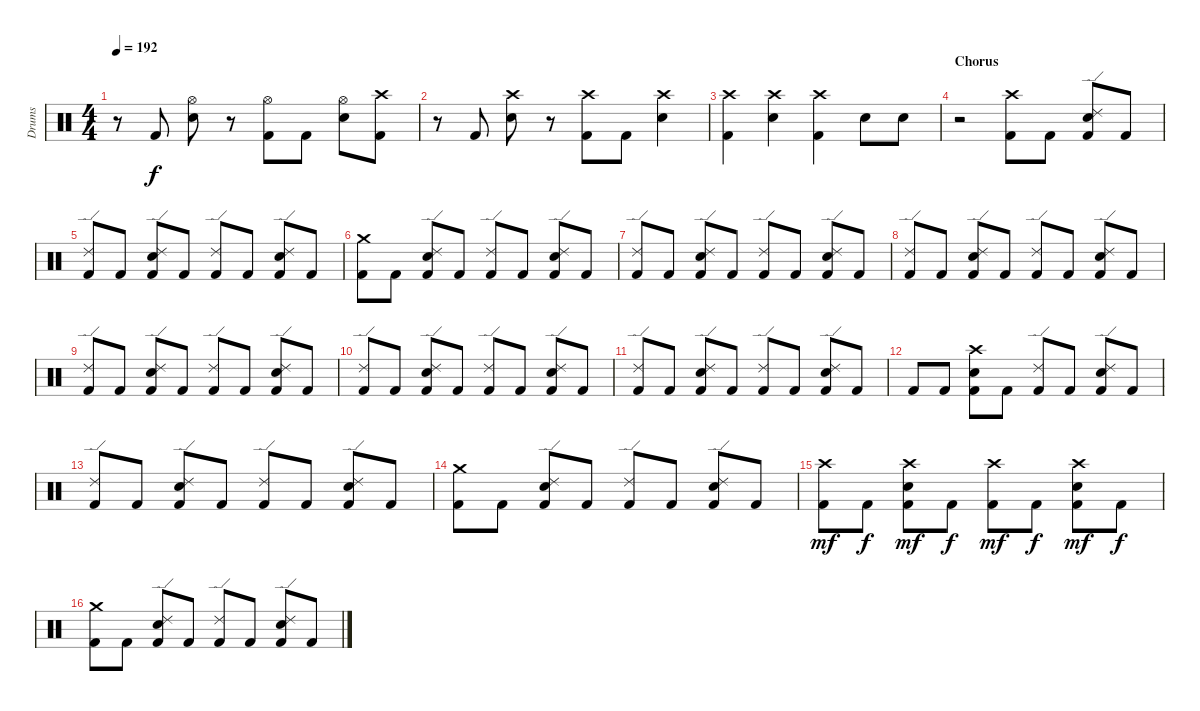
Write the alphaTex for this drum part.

\track ("Drums" "Drums") {instrument percussion}
\staff {score}
\articulation defaults
\ts (4 4)
\tempo 192
\clef neutral
\ks c
r.8{dy f} "Kick (hit) 2".8 ("Electric Snare (hit)" "Hi-Hat (open)").8 r.8 ("Kick (hit) 2" "Hi-Hat (open)").8 "Kick (hit) 2".8 ("Electric Snare (hit)" "Hi-Hat (open)").8 ("Kick (hit) 2" "Crash high (hit)").8 |
r.8 "Kick (hit) 2".8 ("Electric Snare (hit)" "Crash high (hit)").8 r.8 ("Kick (hit) 2" "Crash high (hit)").8 "Kick (hit) 2".8 ("Electric Snare (hit)" "Crash high (hit)").4 |
("Kick (hit) 2" "Crash high (hit)").4 ("Electric Snare (hit)" "Crash high (hit)").4 ("Kick (hit) 2" "Crash high (hit)").4 "Electric Snare (hit)".8 "Electric Snare (hit)".8 |
\section ("" "Chorus")
r.2 ("Kick (hit) 2" "Crash high (hit)").8 "Kick (hit) 2".8 ("Kick (hit) 2" "Electric Snare (hit)" "Ride (edge) 2").8 "Kick (hit) 2".8 |
("Kick (hit) 2" "Ride (edge) 2").8 "Kick (hit) 2".8 ("Kick (hit) 2" "Electric Snare (hit)" "Ride (edge) 2").8 "Kick (hit) 2".8 ("Kick (hit) 2" "Ride (edge) 2").8 "Kick (hit) 2".8 ("Kick (hit) 2" "Electric Snare (hit)" "Ride (edge) 2").8 "Kick (hit) 2".8 |
("Kick (hit) 2" "Crash medium (hit)").8 "Kick (hit) 2".8 ("Kick (hit) 2" "Electric Snare (hit)" "Ride (edge) 2").8 "Kick (hit) 2".8 ("Kick (hit) 2" "Ride (edge) 2").8 "Kick (hit) 2".8 ("Kick (hit) 2" "Electric Snare (hit)" "Ride (edge) 2").8 "Kick (hit) 2".8 |
("Kick (hit) 2" "Ride (edge) 2").8 "Kick (hit) 2".8 ("Kick (hit) 2" "Electric Snare (hit)" "Ride (edge) 2").8 "Kick (hit) 2".8 ("Kick (hit) 2" "Ride (edge) 2").8 "Kick (hit) 2".8 ("Kick (hit) 2" "Electric Snare (hit)" "Ride (edge) 2").8 "Kick (hit) 2".8 |
("Kick (hit) 2" "Ride (edge) 2").8 "Kick (hit) 2".8 ("Kick (hit) 2" "Electric Snare (hit)" "Ride (edge) 2").8 "Kick (hit) 2".8 ("Kick (hit) 2" "Ride (edge) 2").8 "Kick (hit) 2".8 ("Kick (hit) 2" "Electric Snare (hit)" "Ride (edge) 2").8 "Kick (hit) 2".8 |
("Kick (hit) 2" "Ride (edge) 2").8 "Kick (hit) 2".8 ("Kick (hit) 2" "Electric Snare (hit)" "Ride (edge) 2").8 "Kick (hit) 2".8 ("Kick (hit) 2" "Ride (edge) 2").8 "Kick (hit) 2".8 ("Kick (hit) 2" "Electric Snare (hit)" "Ride (edge) 2").8 "Kick (hit) 2".8 |
("Kick (hit) 2" "Ride (edge) 2").8 "Kick (hit) 2".8 ("Kick (hit) 2" "Electric Snare (hit)" "Ride (edge) 2").8 "Kick (hit) 2".8 ("Kick (hit) 2" "Ride (edge) 2").8 "Kick (hit) 2".8 ("Kick (hit) 2" "Electric Snare (hit)" "Ride (edge) 2").8 "Kick (hit) 2".8 |
("Kick (hit) 2" "Ride (edge) 2").8 "Kick (hit) 2".8 ("Kick (hit) 2" "Electric Snare (hit)" "Ride (edge) 2").8 "Kick (hit) 2".8 ("Kick (hit) 2" "Ride (edge) 2").8 "Kick (hit) 2".8 ("Kick (hit) 2" "Electric Snare (hit)" "Ride (edge) 2").8 "Kick (hit) 2".8 |
\section ("" "")
"Kick (hit) 2".8 "Kick (hit) 2".8 ("Kick (hit) 2" "Electric Snare (hit)" "Crash high (hit)").8 "Kick (hit) 2".8 ("Kick (hit) 2" "Ride (edge) 2").8 "Kick (hit) 2".8 ("Kick (hit) 2" "Electric Snare (hit)" "Ride (edge) 2").8 "Kick (hit) 2".8 |
("Kick (hit) 2" "Ride (edge) 2").8 "Kick (hit) 2".8 ("Kick (hit) 2" "Electric Snare (hit)" "Ride (edge) 2").8 "Kick (hit) 2".8 ("Kick (hit) 2" "Ride (edge) 2").8 "Kick (hit) 2".8 ("Kick (hit) 2" "Electric Snare (hit)" "Ride (edge) 2").8 "Kick (hit) 2".8 |
("Kick (hit) 2" "Crash medium (hit)").8 "Kick (hit) 2".8 ("Kick (hit) 2" "Electric Snare (hit)" "Ride (edge) 2").8 "Kick (hit) 2".8 ("Kick (hit) 2" "Ride (edge) 2").8 "Kick (hit) 2".8 ("Kick (hit) 2" "Electric Snare (hit)" "Ride (edge) 2").8 "Kick (hit) 2".8 |
("Kick (hit) 2" "Crash high (hit)").8{dy mf} "Kick (hit) 2".8{dy f} ("Kick (hit) 2" "Electric Snare (hit)" "Crash high (hit)").8{dy mf} "Kick (hit) 2".8{dy f} ("Kick (hit) 2" "Crash high (hit)").8{dy mf} "Kick (hit) 2".8{dy f} ("Kick (hit) 2" "Electric Snare (hit)" "Crash high (hit)").8{dy mf} "Kick (hit) 2".8{dy f} |
("Kick (hit) 2" "Crash medium (hit)").8 "Kick (hit) 2".8 ("Kick (hit) 2" "Electric Snare (hit)" "Ride (edge) 2").8 "Kick (hit) 2".8 ("Kick (hit) 2" "Ride (edge) 2").8 "Kick (hit) 2".8 ("Kick (hit) 2" "Electric Snare (hit)" "Ride (edge) 2").8 "Kick (hit) 2".8
